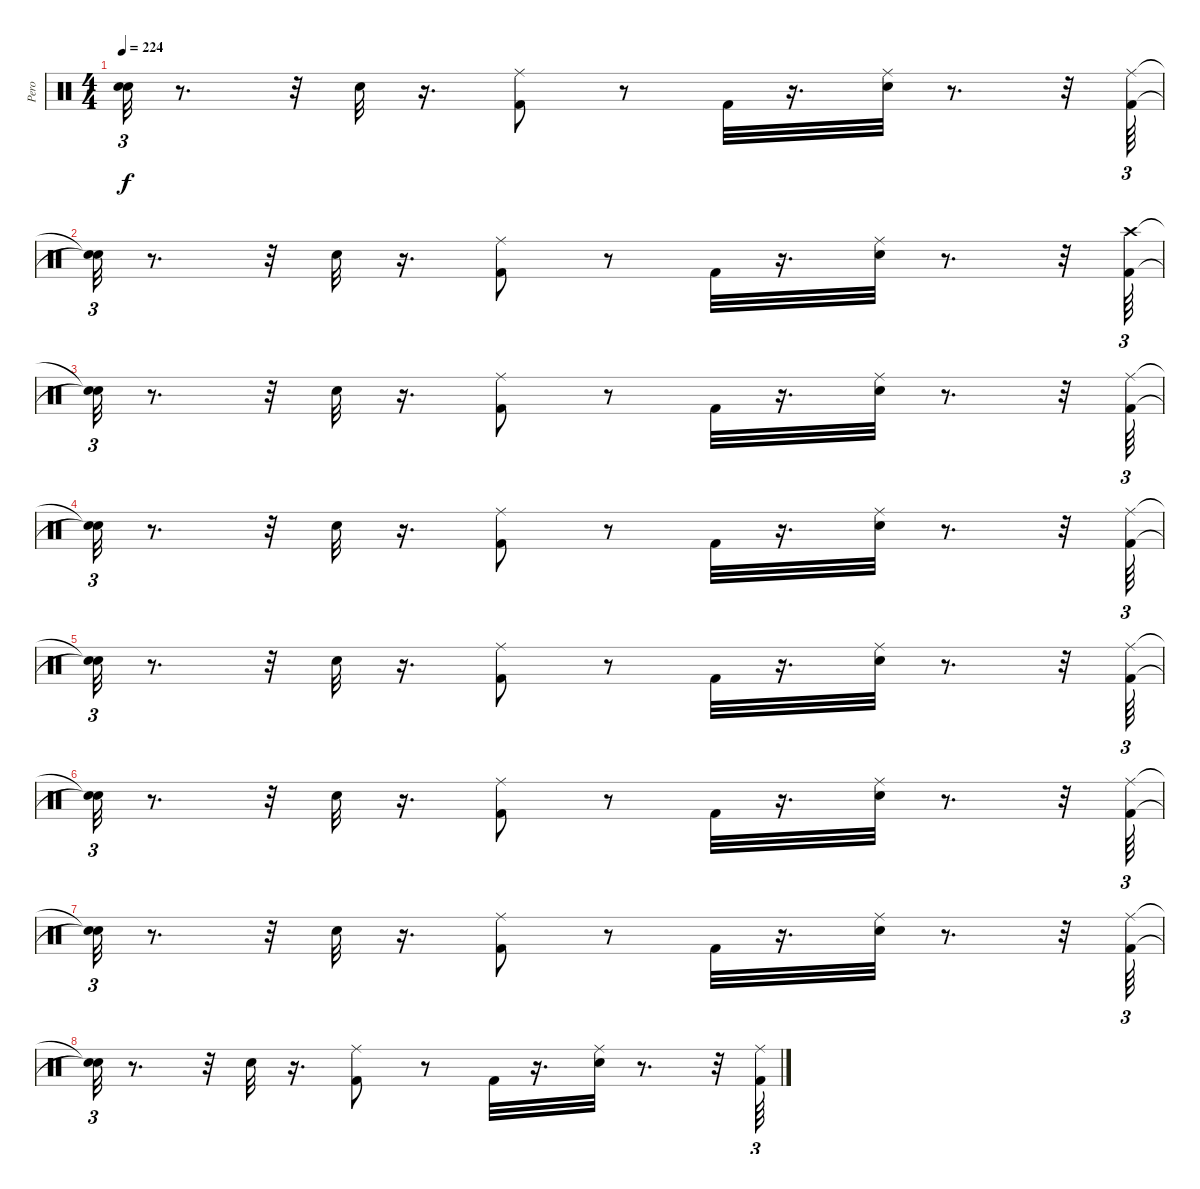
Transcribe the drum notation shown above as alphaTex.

\track ("Pero" "Pero") {instrument percussion}
\staff {score}
\articulation defaults
\ts (4 4)
\tempo 224
\clef neutral
\ks c
("Snare (hit)"{t} "Snare (hit)"{t}).32{tu (3 2) dy f} r.8{d} r.32 "Snare (hit) 2".32 r.16{d} ("Ride (middle)" "Kick (hit) 2").8 r.8 "Kick (hit) 2".32 r.16{d} ("Snare (hit) 2" "Ride (middle)").32 r.8{d} r.32 ("Ride (middle)" "Kick (hit) 2").64{tu (3 2)} |
("Snare (hit)"{t} "Snare (hit)"{t}).32{tu (3 2)} r.8{d} r.32 "Snare (hit) 2".32 r.16{d} ("Ride (middle)" "Kick (hit) 2").8 r.8 "Kick (hit) 2".32 r.16{d} ("Snare (hit) 2" "Ride (middle)").32 r.8{d} r.32 ("Crash high (hit)" "Kick (hit) 2").64{tu (3 2)} |
("Snare (hit)"{t} "Snare (hit)"{t}).32{tu (3 2)} r.8{d} r.32 "Snare (hit) 2".32 r.16{d} ("Ride (middle)" "Kick (hit) 2").8 r.8 "Kick (hit) 2".32 r.16{d} ("Snare (hit) 2" "Ride (middle)").32 r.8{d} r.32 ("Ride (middle)" "Kick (hit) 2").64{tu (3 2)} |
("Snare (hit)"{t} "Snare (hit)"{t}).32{tu (3 2)} r.8{d} r.32 "Snare (hit) 2".32 r.16{d} ("Ride (middle)" "Kick (hit) 2").8 r.8 "Kick (hit) 2".32 r.16{d} ("Snare (hit) 2" "Ride (middle)").32 r.8{d} r.32 ("Ride (middle)" "Kick (hit) 2").64{tu (3 2)} |
("Snare (hit)"{t} "Snare (hit)"{t}).32{tu (3 2)} r.8{d} r.32 "Snare (hit) 2".32 r.16{d} ("Ride (middle)" "Kick (hit) 2").8 r.8 "Kick (hit) 2".32 r.16{d} ("Snare (hit) 2" "Ride (middle)").32 r.8{d} r.32 ("Ride (middle)" "Kick (hit) 2").64{tu (3 2)} |
("Snare (hit)"{t} "Snare (hit)"{t}).32{tu (3 2)} r.8{d} r.32 "Snare (hit) 2".32 r.16{d} ("Ride (middle)" "Kick (hit) 2").8 r.8 "Kick (hit) 2".32 r.16{d} ("Snare (hit) 2" "Ride (middle)").32 r.8{d} r.32 ("Ride (middle)" "Kick (hit) 2").64{tu (3 2)} |
("Snare (hit)"{t} "Snare (hit)"{t}).32{tu (3 2)} r.8{d} r.32 "Snare (hit) 2".32 r.16{d} ("Ride (middle)" "Kick (hit) 2").8 r.8 "Kick (hit) 2".32 r.16{d} ("Snare (hit) 2" "Ride (middle)").32 r.8{d} r.32 ("Ride (middle)" "Kick (hit) 2").64{tu (3 2)} |
("Snare (hit)"{t} "Snare (hit)"{t}).32{tu (3 2)} r.8{d} r.32 "Snare (hit) 2".32 r.16{d} ("Ride (middle)" "Kick (hit) 2").8 r.8 "Kick (hit) 2".32 r.16{d} ("Snare (hit) 2" "Ride (middle)").32 r.8{d} r.32 ("Ride (middle)" "Kick (hit) 2").64{tu (3 2)}
